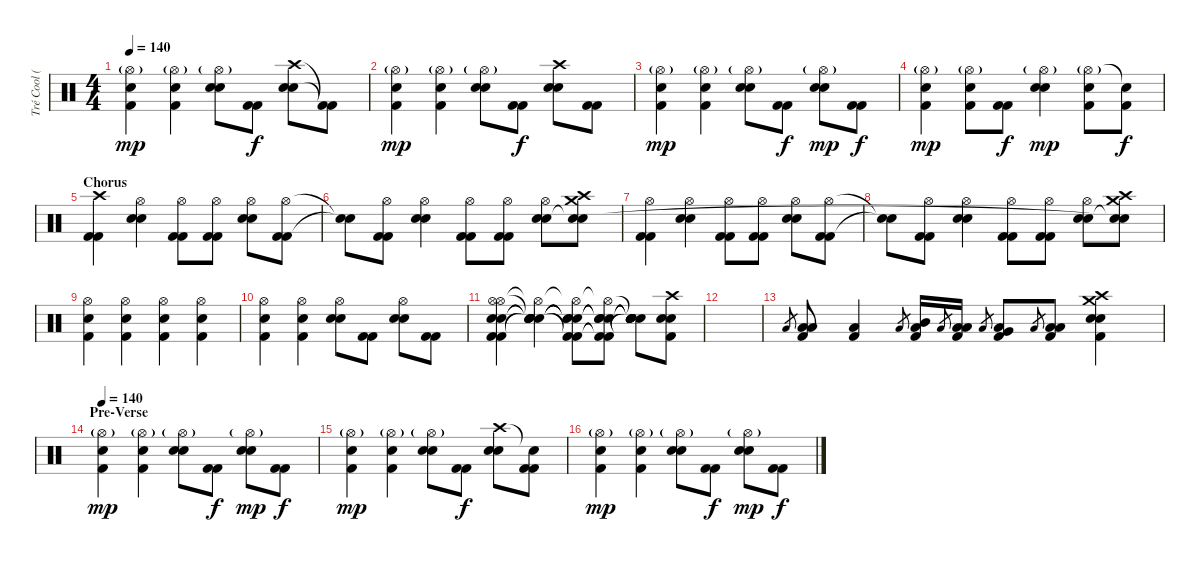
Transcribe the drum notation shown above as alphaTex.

\track ("Tré Cool (Drums)" "Tré Cool (") {instrument percussion}
\staff {score}
\articulation defaults
\ts (4 4)
\tempo 140
\clef neutral
\ks c
("Hi-Hat (open)"{g} "Electric Snare (hit)" "Kick (hit) 2").4{dy mp} ("Hi-Hat (open)"{g} "Electric Snare (hit)" "Kick (hit) 2").4 ("Hi-Hat (open)"{g} "Electric Snare (hit)" "Electric Snare (hit)").8 ("Kick (hit) 2" "Kick (hit) 2").8{dy f} ("Crash high (hit)" "Electric Snare (hit)" "Electric Snare (hit)").8 ("Kick (hit) 2"{t} "Kick (hit) 2"{t}).8 |
("Hi-Hat (open)"{g} "Electric Snare (hit)" "Kick (hit) 2").4{dy mp} ("Hi-Hat (open)"{g} "Electric Snare (hit)" "Kick (hit) 2").4 ("Hi-Hat (open)"{g} "Electric Snare (hit)" "Electric Snare (hit)").8 ("Kick (hit) 2" "Kick (hit) 2").8{dy f} ("Crash high (hit)" "Electric Snare (hit)" "Electric Snare (hit)").8 ("Kick (hit) 2" "Kick (hit) 2").8 |
("Hi-Hat (open)"{g} "Electric Snare (hit)" "Kick (hit) 2").4{dy mp} ("Hi-Hat (open)"{g} "Electric Snare (hit)" "Kick (hit) 2").4 ("Hi-Hat (open)"{g} "Electric Snare (hit)" "Electric Snare (hit)").8 ("Kick (hit) 2" "Kick (hit) 2").8{dy f} ("Hi-Hat (open)"{g} "Electric Snare (hit)" "Electric Snare (hit)").8{dy mp} ("Kick (hit) 2" "Kick (hit) 2").8{dy f} |
("Hi-Hat (open)"{g} "Electric Snare (hit)" "Kick (hit) 2").4{dy mp} ("Hi-Hat (open)"{g} "Electric Snare (hit)" "Kick (hit) 2").8 ("Kick (hit) 2" "Kick (hit) 2").8{dy f} ("Hi-Hat (open)"{g} "Electric Snare (hit)" "Electric Snare (hit)").4{dy mp} ("Hi-Hat (open)"{g} "Electric Snare (hit)"{tr (38 64)} "Kick (hit) 2").8 ("Electric Snare (hit)"{t} "Kick (hit) 2").8{dy f} |
\section ("" "Chorus")
("Crash high (hit)" "Kick (hit) 2" "Kick (hit) 2").4 ("Hi-Hat (open)" "Electric Snare (hit)" "Electric Snare (hit)").4 ("Hi-Hat (open)" "Kick (hit) 2" "Kick (hit) 2").8 ("Hi-Hat (open)" "Kick (hit) 2" "Kick (hit) 2").8 ("Hi-Hat (open)" "Electric Snare (hit)" "Electric Snare (hit)").8 ("Hi-Hat (open)" "Kick (hit) 2" "Kick (hit) 2").8 |
("Snare (hit)"{t} "Snare (hit)"{t}).8 ("Hi-Hat (open)" "Kick (hit) 2" "Kick (hit) 2").8 ("Hi-Hat (open)" "Electric Snare (hit)" "Electric Snare (hit)").4 ("Hi-Hat (open)" "Kick (hit) 2" "Kick (hit) 2").8 ("Hi-Hat (open)" "Kick (hit) 2" "Kick (hit) 2").8 ("Hi-Hat (open)" "Electric Snare (hit)" "Electric Snare (hit)").8 ("Crash high (hit)" "Crash medium (hit)" "Snare (hit)"{t} "Snare (hit)").8 |
("Hi-Hat (open)" "Kick (hit) 2" "Kick (hit) 2").4 ("Hi-Hat (open)" "Electric Snare (hit)" "Electric Snare (hit)").4 ("Hi-Hat (open)" "Kick (hit) 2" "Kick (hit) 2").8 ("Hi-Hat (open)" "Kick (hit) 2" "Kick (hit) 2").8 ("Hi-Hat (open)" "Electric Snare (hit)" "Electric Snare (hit)").8 ("Hi-Hat (open)" "Kick (hit) 2" "Kick (hit) 2").8 |
("Snare (hit)"{t} "Snare (hit)"{t}).8 ("Hi-Hat (open)" "Kick (hit) 2" "Kick (hit) 2").8 ("Hi-Hat (open)" "Electric Snare (hit)" "Electric Snare (hit)").4 ("Hi-Hat (open)" "Kick (hit) 2" "Kick (hit) 2").8 ("Hi-Hat (open)" "Kick (hit) 2" "Kick (hit) 2").8 ("Hi-Hat (open)" "Electric Snare (hit)" "Electric Snare (hit)").8 ("Crash high (hit)" "Crash medium (hit)" "Snare (hit)"{t} "Snare (hit)"{t}).8 |
("Hi-Hat (open)" "Electric Snare (hit)" "Kick (hit) 2").4 ("Hi-Hat (open)" "Electric Snare (hit)" "Kick (hit) 2").4 ("Hi-Hat (open)" "Electric Snare (hit)" "Kick (hit) 2").4 ("Hi-Hat (open)" "Electric Snare (hit)" "Kick (hit) 2").4 |
("Hi-Hat (open)" "Electric Snare (hit)" "Kick (hit) 2").4 ("Hi-Hat (open)" "Electric Snare (hit)" "Kick (hit) 2").4 ("Hi-Hat (open)" "Electric Snare (hit)" "Electric Snare (hit)").8 ("Kick (hit) 2" "Kick (hit) 2").8 ("Hi-Hat (open)" "Electric Snare (hit)" "Electric Snare (hit)").8 ("Kick (hit) 2" "Kick (hit) 2").8 |
("Hi-Hat (open)" "Hi-Hat (open)" "Electric Snare (hit)" "Electric Snare (hit)" "Kick (hit) 2" "Kick (hit) 2").4 ("Hi-Hat (open)"{t} "Snare (hit)"{t} "Snare (hit)"{t} "Snare (hit)"{t} "Electric Snare (hit)"{t} "Electric Snare (hit)"{t}).4 ("Hi-Hat (open)"{t} "Snare (hit)"{t} "Snare (hit)"{t} "Snare (hit)"{t} "Kick (hit) 2"{t} "Kick (hit) 2"{t}).8 ("Hi-Hat (open)"{t} "Snare (hit)"{t} "Snare (hit)"{t} "Snare (hit)"{t} "Kick (hit) 2"{t} "Kick (hit) 2"{t}).8 ("Snare (hit)"{t} "Snare (hit)"{t} "Snare (hit)"{t} "Snare (hit)"{t} "Snare (hit)"{t} "Snare (hit)"{t}).8 ("Crash high (hit)" "Electric Snare (hit)" "Electric Snare (hit)" "Kick (hit) 2").8 |
|
"Low Tom (hit)".8{gr} ("Low Tom (hit)" "Low Tom (hit)" "Kick (hit) 2").8 ("Low Floor Tom (hit)" "Kick (hit) 2").4 "Low Tom (hit)".8{gr} ("Mid Tom (hit)" "Low Tom (hit)" "Kick (hit) 2").16 "Low Tom (hit)".8{gr} ("Low Tom (hit)" "Low Tom (hit)" "Kick (hit) 2").16 "Low Tom (hit)".8{gr} ("Very Low Tom (hit)" "Low Tom (hit)" "Kick (hit) 2").8 "Low Tom (hit)".8{gr} ("Low Floor Tom (hit)" "Low Tom (hit)" "Kick (hit) 2").8 ("Crash high (hit)" "Electric Snare (hit)" "Electric Snare (hit)" "Crash medium (hit)" "Kick (hit) 2").4 |
\section ("" "Pre-Verse")
\tempo 140
("Hi-Hat (open)"{g} "Electric Snare (hit)" "Kick (hit) 2").4{dy mp} ("Hi-Hat (open)"{g} "Electric Snare (hit)" "Kick (hit) 2").4 ("Hi-Hat (open)"{g} "Electric Snare (hit)" "Electric Snare (hit)").8 ("Kick (hit) 2" "Kick (hit) 2").8{dy f} ("Hi-Hat (open)"{g} "Electric Snare (hit)" "Electric Snare (hit)").8{dy mp} ("Kick (hit) 2" "Kick (hit) 2").8{dy f} |
("Hi-Hat (open)"{g} "Electric Snare (hit)" "Kick (hit) 2").4{dy mp} ("Hi-Hat (open)"{g} "Electric Snare (hit)" "Kick (hit) 2").4 ("Hi-Hat (open)"{g} "Electric Snare (hit)" "Electric Snare (hit)").8 ("Kick (hit) 2" "Kick (hit) 2").8{dy f} ("Crash high (hit)" "Electric Snare (hit)" "Electric Snare (hit)").8 ("Snare (hit)"{t} "Kick (hit) 2" "Kick (hit) 2").8 |
("Hi-Hat (open)"{g} "Electric Snare (hit)" "Kick (hit) 2").4{dy mp} ("Hi-Hat (open)"{g} "Electric Snare (hit)" "Kick (hit) 2").4 ("Hi-Hat (open)"{g} "Electric Snare (hit)" "Electric Snare (hit)").8 ("Kick (hit) 2" "Kick (hit) 2").8{dy f} ("Hi-Hat (open)"{g} "Electric Snare (hit)" "Electric Snare (hit)").8{dy mp} ("Kick (hit) 2" "Kick (hit) 2").8{dy f}
